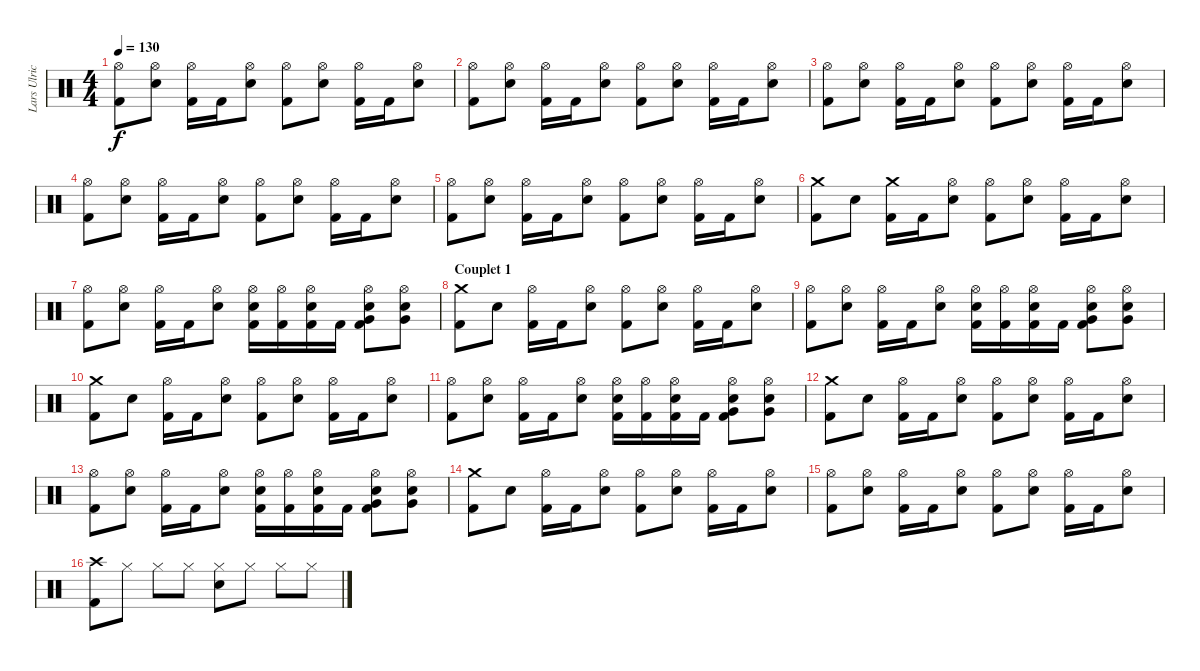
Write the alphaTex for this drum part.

\track ("Lars Ulrich" "Lars Ulric") {instrument percussion}
\staff {score}
\articulation defaults
\ts (4 4)
\tempo 130
\clef neutral
\ks c
("Hi-Hat (open)" "Kick (hit) 2").8{dy f} ("Hi-Hat (open)" "Electric Snare (hit)").8 ("Hi-Hat (open)" "Kick (hit) 2").16 "Kick (hit) 2".16 ("Hi-Hat (open)" "Electric Snare (hit)").8 ("Hi-Hat (open)" "Kick (hit) 2").8 ("Hi-Hat (open)" "Electric Snare (hit)").8 ("Hi-Hat (open)" "Kick (hit) 2").16 "Kick (hit) 2".16 ("Hi-Hat (open)" "Electric Snare (hit)").8 |
("Hi-Hat (open)" "Kick (hit) 2").8 ("Hi-Hat (open)" "Electric Snare (hit)").8 ("Hi-Hat (open)" "Kick (hit) 2").16 "Kick (hit) 2".16 ("Hi-Hat (open)" "Electric Snare (hit)").8 ("Hi-Hat (open)" "Kick (hit) 2").8 ("Hi-Hat (open)" "Electric Snare (hit)").8 ("Hi-Hat (open)" "Kick (hit) 2").16 "Kick (hit) 2".16 ("Hi-Hat (open)" "Electric Snare (hit)").8 |
("Hi-Hat (open)" "Kick (hit) 2").8 ("Hi-Hat (open)" "Electric Snare (hit)").8 ("Hi-Hat (open)" "Kick (hit) 2").16 "Kick (hit) 2".16 ("Hi-Hat (open)" "Electric Snare (hit)").8 ("Hi-Hat (open)" "Kick (hit) 2").8 ("Hi-Hat (open)" "Electric Snare (hit)").8 ("Hi-Hat (open)" "Kick (hit) 2").16 "Kick (hit) 2".16 ("Hi-Hat (open)" "Electric Snare (hit)").8 |
("Hi-Hat (open)" "Kick (hit) 2").8 ("Hi-Hat (open)" "Electric Snare (hit)").8 ("Hi-Hat (open)" "Kick (hit) 2").16 "Kick (hit) 2".16 ("Hi-Hat (open)" "Electric Snare (hit)").8 ("Hi-Hat (open)" "Kick (hit) 2").8 ("Hi-Hat (open)" "Electric Snare (hit)").8 ("Hi-Hat (open)" "Kick (hit) 2").16 "Kick (hit) 2".16 ("Hi-Hat (open)" "Electric Snare (hit)").8 |
("Hi-Hat (open)" "Kick (hit) 2").8 ("Hi-Hat (open)" "Electric Snare (hit)").8 ("Hi-Hat (open)" "Kick (hit) 2").16 "Kick (hit) 2".16 ("Hi-Hat (open)" "Electric Snare (hit)").8 ("Hi-Hat (open)" "Kick (hit) 2").8 ("Hi-Hat (open)" "Electric Snare (hit)").8 ("Hi-Hat (open)" "Kick (hit) 2").16 "Kick (hit) 2".16 ("Hi-Hat (open)" "Electric Snare (hit)").8 |
("Crash medium (hit)" "Kick (hit) 2").8 "Electric Snare (hit)".8 ("Crash medium (hit)" "Kick (hit) 2").16 "Kick (hit) 2".16 ("Hi-Hat (open)" "Electric Snare (hit)").8 ("Hi-Hat (open)" "Kick (hit) 2").8 ("Hi-Hat (open)" "Electric Snare (hit)").8 ("Hi-Hat (open)" "Kick (hit) 2").16 "Kick (hit) 2".16 ("Hi-Hat (open)" "Electric Snare (hit)").8 |
("Hi-Hat (open)" "Kick (hit) 2").8 ("Hi-Hat (open)" "Electric Snare (hit)").8 ("Hi-Hat (open)" "Kick (hit) 2").16 "Kick (hit) 2".16 ("Hi-Hat (open)" "Electric Snare (hit)").8 ("Hi-Hat (open)" "Electric Snare (hit)" "Kick (hit) 2").16 ("Hi-Hat (open)" "Kick (hit) 2").16 ("Hi-Hat (open)" "Electric Snare (hit)" "Kick (hit) 2").16 "Kick (hit) 2".16 ("Hi-Hat (open)" "Electric Snare (hit)" "Very Low Tom (hit)" "Kick (hit) 2").8 ("Hi-Hat (open)" "Electric Snare (hit)" "Very Low Tom (hit)").8 |
\section ("" "Couplet 1")
("Crash medium (hit)" "Kick (hit) 2").8 "Electric Snare (hit)".8 ("Hi-Hat (open)" "Kick (hit) 2").16 "Kick (hit) 2".16 ("Hi-Hat (open)" "Electric Snare (hit)").8 ("Hi-Hat (open)" "Kick (hit) 2").8 ("Hi-Hat (open)" "Electric Snare (hit)").8 ("Hi-Hat (open)" "Kick (hit) 2").16 "Kick (hit) 2".16 ("Hi-Hat (open)" "Electric Snare (hit)").8 |
("Hi-Hat (open)" "Kick (hit) 2").8 ("Hi-Hat (open)" "Electric Snare (hit)").8 ("Hi-Hat (open)" "Kick (hit) 2").16 "Kick (hit) 2".16 ("Hi-Hat (open)" "Electric Snare (hit)").8 ("Hi-Hat (open)" "Electric Snare (hit)" "Kick (hit) 2").16 ("Hi-Hat (open)" "Kick (hit) 2").16 ("Hi-Hat (open)" "Electric Snare (hit)" "Kick (hit) 2").16 "Kick (hit) 2".16 ("Hi-Hat (open)" "Electric Snare (hit)" "Very Low Tom (hit)" "Kick (hit) 2").8 ("Hi-Hat (open)" "Electric Snare (hit)" "Very Low Tom (hit)").8 |
("Crash medium (hit)" "Kick (hit) 2").8 "Electric Snare (hit)".8 ("Hi-Hat (open)" "Kick (hit) 2").16 "Kick (hit) 2".16 ("Hi-Hat (open)" "Electric Snare (hit)").8 ("Hi-Hat (open)" "Kick (hit) 2").8 ("Hi-Hat (open)" "Electric Snare (hit)").8 ("Hi-Hat (open)" "Kick (hit) 2").16 "Kick (hit) 2".16 ("Hi-Hat (open)" "Electric Snare (hit)").8 |
("Hi-Hat (open)" "Kick (hit) 2").8 ("Hi-Hat (open)" "Electric Snare (hit)").8 ("Hi-Hat (open)" "Kick (hit) 2").16 "Kick (hit) 2".16 ("Hi-Hat (open)" "Electric Snare (hit)").8 ("Hi-Hat (open)" "Electric Snare (hit)" "Kick (hit) 2").16 ("Hi-Hat (open)" "Kick (hit) 2").16 ("Hi-Hat (open)" "Electric Snare (hit)" "Kick (hit) 2").16 "Kick (hit) 2".16 ("Hi-Hat (open)" "Electric Snare (hit)" "Very Low Tom (hit)" "Kick (hit) 2").8 ("Hi-Hat (open)" "Electric Snare (hit)" "Very Low Tom (hit)").8 |
("Crash medium (hit)" "Kick (hit) 2").8 "Electric Snare (hit)".8 ("Hi-Hat (open)" "Kick (hit) 2").16 "Kick (hit) 2".16 ("Hi-Hat (open)" "Electric Snare (hit)").8 ("Hi-Hat (open)" "Kick (hit) 2").8 ("Hi-Hat (open)" "Electric Snare (hit)").8 ("Hi-Hat (open)" "Kick (hit) 2").16 "Kick (hit) 2".16 ("Hi-Hat (open)" "Electric Snare (hit)").8 |
("Hi-Hat (open)" "Kick (hit) 2").8 ("Hi-Hat (open)" "Electric Snare (hit)").8 ("Hi-Hat (open)" "Kick (hit) 2").16 "Kick (hit) 2".16 ("Hi-Hat (open)" "Electric Snare (hit)").8 ("Hi-Hat (open)" "Electric Snare (hit)" "Kick (hit) 2").16 ("Hi-Hat (open)" "Kick (hit) 2").16 ("Hi-Hat (open)" "Electric Snare (hit)" "Kick (hit) 2").16 "Kick (hit) 2".16 ("Hi-Hat (open)" "Electric Snare (hit)" "Very Low Tom (hit)" "Kick (hit) 2").8 ("Hi-Hat (open)" "Electric Snare (hit)" "Very Low Tom (hit)").8 |
("Crash medium (hit)" "Kick (hit) 2").8 "Electric Snare (hit)".8 ("Hi-Hat (open)" "Kick (hit) 2").16 "Kick (hit) 2".16 ("Hi-Hat (open)" "Electric Snare (hit)").8 ("Hi-Hat (open)" "Kick (hit) 2").8 ("Hi-Hat (open)" "Electric Snare (hit)").8 ("Hi-Hat (open)" "Kick (hit) 2").16 "Kick (hit) 2".16 ("Hi-Hat (open)" "Electric Snare (hit)").8 |
("Hi-Hat (open)" "Kick (hit) 2").8 ("Hi-Hat (open)" "Electric Snare (hit)").8 ("Hi-Hat (open)" "Kick (hit) 2").16 "Kick (hit) 2".16 ("Hi-Hat (open)" "Electric Snare (hit)").8 ("Hi-Hat (open)" "Kick (hit) 2").8 ("Hi-Hat (open)" "Electric Snare (hit)").8 ("Hi-Hat (open)" "Kick (hit) 2").16 "Kick (hit) 2".16 ("Hi-Hat (open)" "Electric Snare (hit)").8 |
("Crash high (hit)" "Kick (hit) 2").8 "Hi-Hat (closed)".8 "Hi-Hat (closed)".8 "Hi-Hat (closed)".8 ("Hi-Hat (closed)" "Electric Snare (hit)").8 "Hi-Hat (closed)".8 "Hi-Hat (closed)".8 "Hi-Hat (closed)".8
